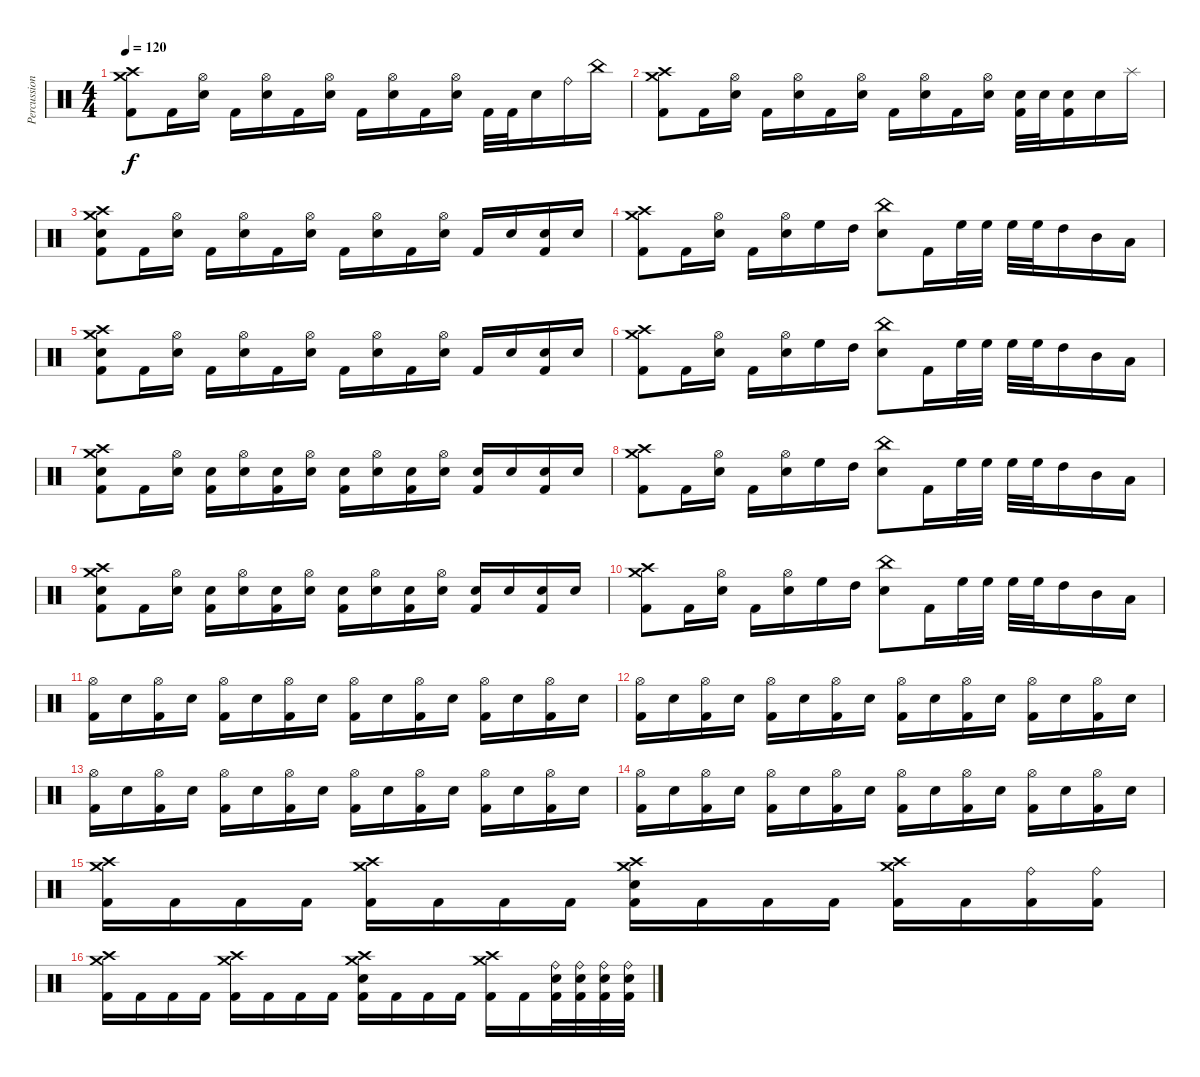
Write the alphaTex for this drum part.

\track ("Percussion" "Percussion") {instrument percussion}
\staff {score}
\articulation defaults
\ts (4 4)
\tempo 120
\clef neutral
\ks c
("Crash high (hit)" "Crash medium (hit)" "Kick (hit) 2").8{dy f} "Kick (hit) 2".16 ("Hi-Hat (open)" "Snare (hit) 2").16 "Kick (hit) 2".16 ("Hi-Hat (open)" "Snare (hit) 2").16 "Kick (hit) 2".16 ("Hi-Hat (open)" "Snare (hit) 2").16 "Kick (hit) 2".16 ("Hi-Hat (open)" "Snare (hit) 2").16 "Kick (hit) 2".16 ("Hi-Hat (open)" "Snare (hit) 2").16 "Kick (hit) 2".32 "Kick (hit) 2".32 "Snare (hit) 2".16 "Ride (bell)".16 "China (hit)".16 |
("Crash high (hit)" "Crash medium (hit)" "Kick (hit) 2").8 "Kick (hit) 2".16 ("Hi-Hat (open)" "Snare (hit) 2").16 "Kick (hit) 2".16 ("Hi-Hat (open)" "Snare (hit) 2").16 "Kick (hit) 2".16 ("Hi-Hat (open)" "Snare (hit) 2").16 "Kick (hit) 2".16 ("Hi-Hat (open)" "Snare (hit) 2").16 "Kick (hit) 2".16 ("Hi-Hat (open)" "Snare (hit) 2").16 ("Snare (hit) 2" "Kick (hit) 2").32 "Snare (hit) 2".32 ("Snare (hit) 2" "Kick (hit) 2").16 "Snare (hit) 2".16 "Splash (hit)".16 |
("Crash high (hit)" "Crash medium (hit)" "Snare (hit) 2" "Kick (hit) 2").8 "Kick (hit) 2".16 ("Hi-Hat (open)" "Snare (hit) 2").16 "Kick (hit) 2".16 ("Hi-Hat (open)" "Snare (hit) 2").16 "Kick (hit) 2".16 ("Hi-Hat (open)" "Snare (hit) 2").16 "Kick (hit) 2".16 ("Hi-Hat (open)" "Snare (hit) 2").16 "Kick (hit) 2".16 ("Hi-Hat (open)" "Snare (hit) 2").16 "Kick (hit) 2".16 "Snare (hit) 2".16 ("Snare (hit) 2" "Kick (hit) 2").16 "Snare (hit) 2".16 |
("Crash high (hit)" "Crash medium (hit)" "Kick (hit) 2").8 "Kick (hit) 2".16 ("Hi-Hat (open)" "Snare (hit) 2").16 "Kick (hit) 2".16 ("Hi-Hat (open)" "Snare (hit) 2").16 "High Floor Tom (hit)".16 "High Tom (hit)".16 ("China (hit)" "Snare (hit) 2").8 "Kick (hit) 2".16 "High Floor Tom (hit)".32 "High Floor Tom (hit)".32 "High Floor Tom (hit)".32 "High Floor Tom (hit)".32 "High Tom (hit)".16 "Mid Tom (hit)".16 "Low Tom (hit)".16 |
("Crash high (hit)" "Crash medium (hit)" "Snare (hit) 2" "Kick (hit) 2").8 "Kick (hit) 2".16 ("Hi-Hat (open)" "Snare (hit) 2").16 "Kick (hit) 2".16 ("Hi-Hat (open)" "Snare (hit) 2").16 "Kick (hit) 2".16 ("Hi-Hat (open)" "Snare (hit) 2").16 "Kick (hit) 2".16 ("Hi-Hat (open)" "Snare (hit) 2").16 "Kick (hit) 2".16 ("Hi-Hat (open)" "Snare (hit) 2").16 "Kick (hit) 2".16 "Snare (hit) 2".16 ("Snare (hit) 2" "Kick (hit) 2").16 "Snare (hit) 2".16 |
("Crash high (hit)" "Crash medium (hit)" "Kick (hit) 2").8 "Kick (hit) 2".16 ("Hi-Hat (open)" "Snare (hit) 2").16 "Kick (hit) 2".16 ("Hi-Hat (open)" "Snare (hit) 2").16 "High Floor Tom (hit)".16 "High Tom (hit)".16 ("China (hit)" "Snare (hit) 2").8 "Kick (hit) 2".16 "High Floor Tom (hit)".32 "High Floor Tom (hit)".32 "High Floor Tom (hit)".32 "High Floor Tom (hit)".32 "High Tom (hit)".16 "Mid Tom (hit)".16 "Low Tom (hit)".16 |
("Crash high (hit)" "Crash medium (hit)" "Snare (hit) 2" "Kick (hit) 2").8 "Kick (hit) 2".16 ("Hi-Hat (open)" "Snare (hit) 2").16 ("Snare (hit) 2" "Kick (hit) 2").16 ("Hi-Hat (open)" "Snare (hit) 2").16 ("Snare (hit) 2" "Kick (hit) 2").16 ("Hi-Hat (open)" "Snare (hit) 2").16 ("Snare (hit) 2" "Kick (hit) 2").16 ("Hi-Hat (open)" "Snare (hit) 2").16 ("Snare (hit) 2" "Kick (hit) 2").16 ("Hi-Hat (open)" "Snare (hit) 2").16 ("Snare (hit) 2" "Kick (hit) 2").16 "Snare (hit) 2".16 ("Snare (hit) 2" "Kick (hit) 2").16 "Snare (hit) 2".16 |
("Crash high (hit)" "Crash medium (hit)" "Kick (hit) 2").8 "Kick (hit) 2".16 ("Hi-Hat (open)" "Snare (hit) 2").16 "Kick (hit) 2".16 ("Hi-Hat (open)" "Snare (hit) 2").16 "High Floor Tom (hit)".16 "High Tom (hit)".16 ("China (hit)" "Snare (hit) 2").8 "Kick (hit) 2".16 "High Floor Tom (hit)".32 "High Floor Tom (hit)".32 "High Floor Tom (hit)".32 "High Floor Tom (hit)".32 "High Tom (hit)".16 "Mid Tom (hit)".16 "Low Tom (hit)".16 |
("Crash high (hit)" "Crash medium (hit)" "Snare (hit) 2" "Kick (hit) 2").8 "Kick (hit) 2".16 ("Hi-Hat (open)" "Snare (hit) 2").16 ("Snare (hit) 2" "Kick (hit) 2").16 ("Hi-Hat (open)" "Snare (hit) 2").16 ("Snare (hit) 2" "Kick (hit) 2").16 ("Hi-Hat (open)" "Snare (hit) 2").16 ("Snare (hit) 2" "Kick (hit) 2").16 ("Hi-Hat (open)" "Snare (hit) 2").16 ("Snare (hit) 2" "Kick (hit) 2").16 ("Hi-Hat (open)" "Snare (hit) 2").16 ("Snare (hit) 2" "Kick (hit) 2").16 "Snare (hit) 2".16 ("Snare (hit) 2" "Kick (hit) 2").16 "Snare (hit) 2".16 |
("Crash high (hit)" "Crash medium (hit)" "Kick (hit) 2").8 "Kick (hit) 2".16 ("Hi-Hat (open)" "Snare (hit) 2").16 "Kick (hit) 2".16 ("Hi-Hat (open)" "Snare (hit) 2").16 "High Floor Tom (hit)".16 "High Tom (hit)".16 ("China (hit)" "Snare (hit) 2").8 "Kick (hit) 2".16 "High Floor Tom (hit)".32 "High Floor Tom (hit)".32 "High Floor Tom (hit)".32 "High Floor Tom (hit)".32 "High Tom (hit)".16 "Mid Tom (hit)".16 "Low Tom (hit)".16 |
("Hi-Hat (open)" "Kick (hit) 2").16 "Snare (hit) 2".16 ("Hi-Hat (open)" "Kick (hit) 2").16 "Snare (hit) 2".16 ("Hi-Hat (open)" "Kick (hit) 2").16 "Snare (hit) 2".16 ("Hi-Hat (open)" "Kick (hit) 2").16 "Snare (hit) 2".16 ("Hi-Hat (open)" "Kick (hit) 2").16 "Snare (hit) 2".16 ("Hi-Hat (open)" "Kick (hit) 2").16 "Snare (hit) 2".16 ("Hi-Hat (open)" "Kick (hit) 2").16 "Snare (hit) 2".16 ("Hi-Hat (open)" "Kick (hit) 2").16 "Snare (hit) 2".16 |
("Hi-Hat (open)" "Kick (hit) 2").16 "Snare (hit) 2".16 ("Hi-Hat (open)" "Kick (hit) 2").16 "Snare (hit) 2".16 ("Hi-Hat (open)" "Kick (hit) 2").16 "Snare (hit) 2".16 ("Hi-Hat (open)" "Kick (hit) 2").16 "Snare (hit) 2".16 ("Hi-Hat (open)" "Kick (hit) 2").16 "Snare (hit) 2".16 ("Hi-Hat (open)" "Kick (hit) 2").16 "Snare (hit) 2".16 ("Hi-Hat (open)" "Kick (hit) 2").16 "Snare (hit) 2".16 ("Hi-Hat (open)" "Kick (hit) 2").16 "Snare (hit) 2".16 |
("Hi-Hat (open)" "Kick (hit) 2").16 "Snare (hit) 2".16 ("Hi-Hat (open)" "Kick (hit) 2").16 "Snare (hit) 2".16 ("Hi-Hat (open)" "Kick (hit) 2").16 "Snare (hit) 2".16 ("Hi-Hat (open)" "Kick (hit) 2").16 "Snare (hit) 2".16 ("Hi-Hat (open)" "Kick (hit) 2").16 "Snare (hit) 2".16 ("Hi-Hat (open)" "Kick (hit) 2").16 "Snare (hit) 2".16 ("Hi-Hat (open)" "Kick (hit) 2").16 "Snare (hit) 2".16 ("Hi-Hat (open)" "Kick (hit) 2").16 "Snare (hit) 2".16 |
("Hi-Hat (open)" "Kick (hit) 2").16 "Snare (hit) 2".16 ("Hi-Hat (open)" "Kick (hit) 2").16 "Snare (hit) 2".16 ("Hi-Hat (open)" "Kick (hit) 2").16 "Snare (hit) 2".16 ("Hi-Hat (open)" "Kick (hit) 2").16 "Snare (hit) 2".16 ("Hi-Hat (open)" "Kick (hit) 2").16 "Snare (hit) 2".16 ("Hi-Hat (open)" "Kick (hit) 2").16 "Snare (hit) 2".16 ("Hi-Hat (open)" "Kick (hit) 2").16 "Snare (hit) 2".16 ("Hi-Hat (open)" "Kick (hit) 2").16 "Snare (hit) 2".16 |
("Crash high (hit)" "Crash medium (hit)" "Kick (hit) 2").16 "Kick (hit) 2".16 "Kick (hit) 2".16 "Kick (hit) 2".16 ("Crash high (hit)" "Crash medium (hit)" "Kick (hit) 2").16 "Kick (hit) 2".16 "Kick (hit) 2".16 "Kick (hit) 2".16 ("Crash high (hit)" "Crash medium (hit)" "Snare (hit) 2" "Kick (hit) 2").16 "Kick (hit) 2".16 "Kick (hit) 2".16 "Kick (hit) 2".16 ("Crash high (hit)" "Crash medium (hit)" "Kick (hit) 2").16 "Kick (hit) 2".16 ("Ride (bell)" "Kick (hit) 2").16 ("Ride (bell)" "Kick (hit) 2").16 |
("Crash high (hit)" "Crash medium (hit)" "Kick (hit) 2").16 "Kick (hit) 2".16 "Kick (hit) 2".16 "Kick (hit) 2".16 ("Crash high (hit)" "Crash medium (hit)" "Kick (hit) 2").16 "Kick (hit) 2".16 "Kick (hit) 2".16 "Kick (hit) 2".16 ("Crash high (hit)" "Crash medium (hit)" "Snare (hit) 2" "Kick (hit) 2").16 "Kick (hit) 2".16 "Kick (hit) 2".16 "Kick (hit) 2".16 ("Crash high (hit)" "Crash medium (hit)" "Kick (hit) 2").16 "Kick (hit) 2".16 ("Ride (bell)" "Snare (hit) 2" "Kick (hit) 2").32 ("Ride (bell)" "Snare (hit) 2" "Kick (hit) 2").32 ("Ride (bell)" "Snare (hit) 2" "Kick (hit) 2").32 ("Ride (bell)" "Snare (hit) 2" "Kick (hit) 2").32
